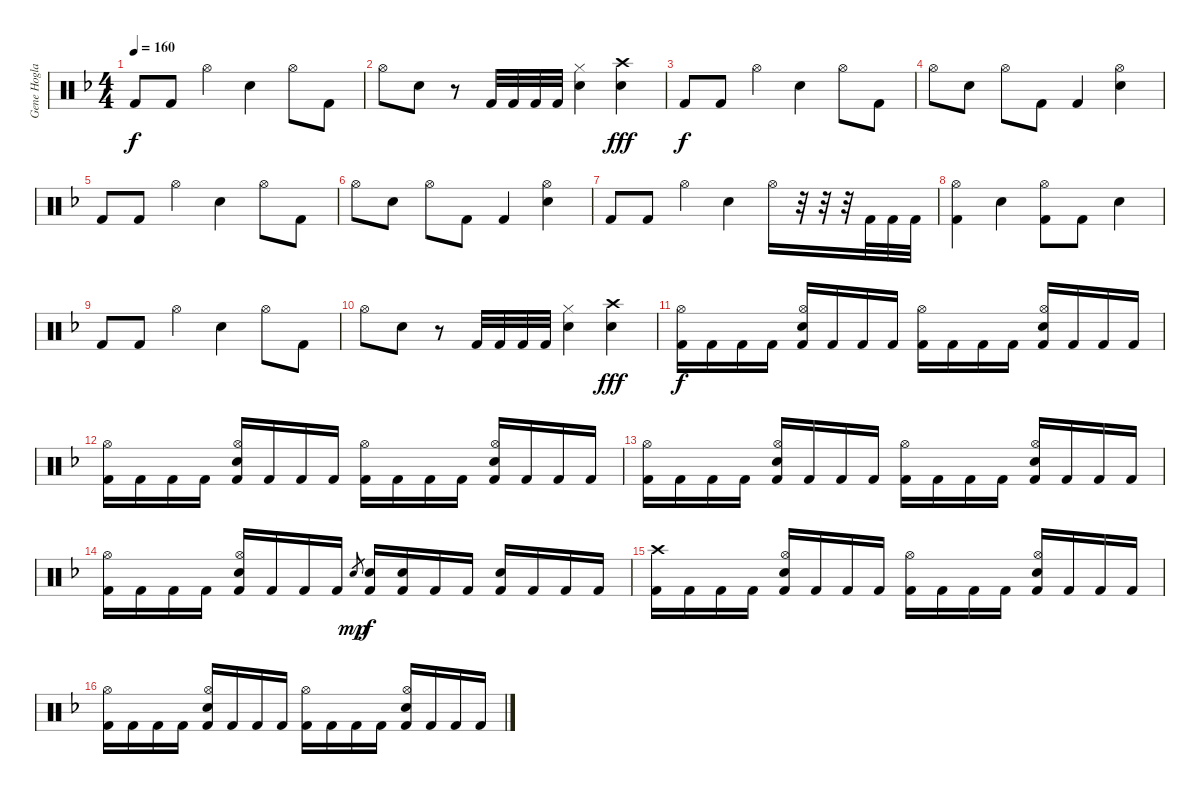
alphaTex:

\track ("Gene Hoglan" "Gene Hogla") {instrument percussion}
\staff {score}
\articulation defaults
\ts (4 4)
\tempo 160
\clef neutral
\ks f "Kick (hit) 2".8{dy f} "Kick (hit) 2".8 "Hi-Hat (open)".4 "Snare (hit) 2".4 "Hi-Hat (open)".8 "Kick (hit) 2".8
|
"Hi-Hat (open)".8 "Snare (hit) 2".8 r.8 "Kick (hit) 2".32 "Kick (hit) 2".32 "Kick (hit) 2".32 "Kick (hit) 2".32 ("Hi-Hat (closed)" "Snare (hit) 2").4 ("Crash high (hit)" "Snare (hit) 2").4{dy fff} |
"Kick (hit) 2".8{dy f} "Kick (hit) 2".8 "Hi-Hat (open)".4 "Snare (hit) 2".4 "Hi-Hat (open)".8 "Kick (hit) 2".8 |
"Hi-Hat (open)".8 "Snare (hit) 2".8 "Hi-Hat (open)".8 "Kick (hit) 2".8 "Kick (hit) 2".4 ("Hi-Hat (open)" "Snare (hit) 2").4 |
"Kick (hit) 2".8 "Kick (hit) 2".8 "Hi-Hat (open)".4 "Snare (hit) 2".4 "Hi-Hat (open)".8 "Kick (hit) 2".8 |
"Hi-Hat (open)".8 "Snare (hit) 2".8 "Hi-Hat (open)".8 "Kick (hit) 2".8 "Kick (hit) 2".4 ("Hi-Hat (open)" "Snare (hit) 2").4 |
"Kick (hit) 2".8 "Kick (hit) 2".8 "Hi-Hat (open)".4 "Snare (hit) 2".4 "Hi-Hat (open)".16 r.32 r.32 r.32 "Kick (hit) 2".32 "Kick (hit) 2".32 "Kick (hit) 2".32 |
("Hi-Hat (open)" "Kick (hit) 2").4 "Snare (hit) 2".4 ("Hi-Hat (open)" "Kick (hit) 2").8 "Kick (hit) 2".8 "Snare (hit) 2".4 |
"Kick (hit) 2".8 "Kick (hit) 2".8 "Hi-Hat (open)".4 "Snare (hit) 2".4 "Hi-Hat (open)".8 "Kick (hit) 2".8 |
"Hi-Hat (open)".8 "Snare (hit) 2".8 r.8 "Kick (hit) 2".32 "Kick (hit) 2".32 "Kick (hit) 2".32 "Kick (hit) 2".32 ("Hi-Hat (closed)" "Snare (hit) 2").4 ("Crash high (hit)" "Snare (hit) 2").4{dy fff} |
("Hi-Hat (open)" "Kick (hit) 2").16{dy f} "Kick (hit) 2".16 "Kick (hit) 2".16 "Kick (hit) 2".16 ("Hi-Hat (open)" "Snare (hit) 2" "Kick (hit) 2").16 "Kick (hit) 2".16 "Kick (hit) 2".16 "Kick (hit) 2".16 ("Hi-Hat (open)" "Kick (hit) 2").16 "Kick (hit) 2".16 "Kick (hit) 2".16 "Kick (hit) 2".16 ("Hi-Hat (open)" "Snare (hit) 2" "Kick (hit) 2").16 "Kick (hit) 2".16 "Kick (hit) 2".16 "Kick (hit) 2".16 |
("Hi-Hat (open)" "Kick (hit) 2").16 "Kick (hit) 2".16 "Kick (hit) 2".16 "Kick (hit) 2".16 ("Hi-Hat (open)" "Snare (hit) 2" "Kick (hit) 2").16 "Kick (hit) 2".16 "Kick (hit) 2".16 "Kick (hit) 2".16 ("Hi-Hat (open)" "Kick (hit) 2").16 "Kick (hit) 2".16 "Kick (hit) 2".16 "Kick (hit) 2".16 ("Hi-Hat (open)" "Snare (hit) 2" "Kick (hit) 2").16 "Kick (hit) 2".16 "Kick (hit) 2".16 "Kick (hit) 2".16 |
("Hi-Hat (open)" "Kick (hit) 2").16 "Kick (hit) 2".16 "Kick (hit) 2".16 "Kick (hit) 2".16 ("Hi-Hat (open)" "Snare (hit) 2" "Kick (hit) 2").16 "Kick (hit) 2".16 "Kick (hit) 2".16 "Kick (hit) 2".16 ("Hi-Hat (open)" "Kick (hit) 2").16 "Kick (hit) 2".16 "Kick (hit) 2".16 "Kick (hit) 2".16 ("Hi-Hat (open)" "Snare (hit) 2" "Kick (hit) 2").16 "Kick (hit) 2".16 "Kick (hit) 2".16 "Kick (hit) 2".16 |
("Hi-Hat (open)" "Kick (hit) 2").16 "Kick (hit) 2".16 "Kick (hit) 2".16 "Kick (hit) 2".16 ("Hi-Hat (open)" "Snare (hit) 2" "Kick (hit) 2").16 "Kick (hit) 2".16 "Kick (hit) 2".16 "Kick (hit) 2".16 "Snare (hit) 2".8{gr dy mp} ("Snare (hit) 2" "Kick (hit) 2").16{dy f} ("Snare (hit) 2" "Kick (hit) 2").16 "Kick (hit) 2".16 "Kick (hit) 2".16 ("Snare (hit) 2" "Kick (hit) 2").16 "Kick (hit) 2".16 "Kick (hit) 2".16 "Kick (hit) 2".16 |
("Crash high (hit)" "Kick (hit) 2").16 "Kick (hit) 2".16 "Kick (hit) 2".16 "Kick (hit) 2".16 ("Hi-Hat (open)" "Snare (hit) 2" "Kick (hit) 2").16 "Kick (hit) 2".16 "Kick (hit) 2".16 "Kick (hit) 2".16 ("Hi-Hat (open)" "Kick (hit) 2").16 "Kick (hit) 2".16 "Kick (hit) 2".16 "Kick (hit) 2".16 ("Hi-Hat (open)" "Snare (hit) 2" "Kick (hit) 2").16 "Kick (hit) 2".16 "Kick (hit) 2".16 "Kick (hit) 2".16 |
("Hi-Hat (open)" "Kick (hit) 2").16 "Kick (hit) 2".16 "Kick (hit) 2".16 "Kick (hit) 2".16 ("Hi-Hat (open)" "Snare (hit) 2" "Kick (hit) 2").16 "Kick (hit) 2".16 "Kick (hit) 2".16 "Kick (hit) 2".16 ("Hi-Hat (open)" "Kick (hit) 2").16 "Kick (hit) 2".16 "Kick (hit) 2".16 "Kick (hit) 2".16 ("Hi-Hat (open)" "Snare (hit) 2" "Kick (hit) 2").16 "Kick (hit) 2".16 "Kick (hit) 2".16 "Kick (hit) 2".16
